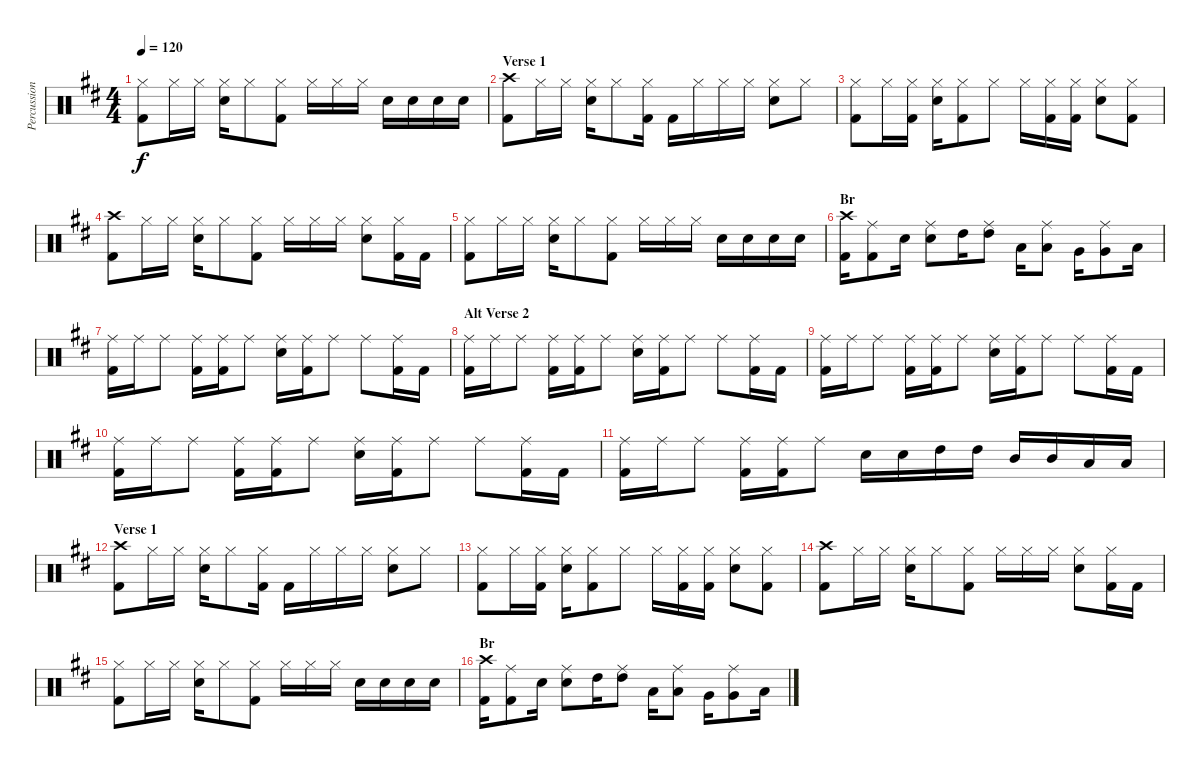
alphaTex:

\track ("Percussion" "Percussion") {instrument percussion}
\staff {score}
\articulation defaults
\ts (4 4)
\tempo 120
\clef neutral
\ks d
("Hi-Hat (closed)" "Kick (hit) 2").8{dy f} "Hi-Hat (closed)".16 "Hi-Hat (closed)".16 ("Hi-Hat (closed)" "Snare (hit) 2").16 "Hi-Hat (closed)".8 ("Hi-Hat (closed)" "Kick (hit) 2").8 "Hi-Hat (closed)".16 "Hi-Hat (closed)".16 "Hi-Hat (closed)".16 "Snare (hit) 2".16 "Snare (hit) 2".16 "Snare (hit) 2".16 "Snare (hit) 2".16 |
\section ("" "Verse 1")
("Crash high (hit)" "Kick (hit) 2").8 "Hi-Hat (closed)".16 "Hi-Hat (closed)".16 ("Hi-Hat (closed)" "Snare (hit) 2").16 "Hi-Hat (closed)".8 ("Hi-Hat (closed)" "Kick (hit) 2").16 "Kick (hit) 2".16 "Hi-Hat (closed)".16 "Hi-Hat (closed)".16 "Hi-Hat (closed)".16 ("Hi-Hat (closed)" "Snare (hit) 2").8 "Hi-Hat (closed)".8 |
("Hi-Hat (closed)" "Kick (hit) 2").8 "Hi-Hat (closed)".16 ("Hi-Hat (closed)" "Kick (hit) 2").16 ("Hi-Hat (closed)" "Snare (hit) 2").16 ("Hi-Hat (closed)" "Kick (hit) 2").8 "Hi-Hat (closed)".8 "Hi-Hat (closed)".16 ("Hi-Hat (closed)" "Kick (hit) 2").16 ("Hi-Hat (closed)" "Kick (hit) 2").16 ("Hi-Hat (closed)" "Snare (hit) 2").8 ("Hi-Hat (closed)" "Kick (hit) 2").8 |
("Crash high (hit)" "Kick (hit) 2").8 "Hi-Hat (closed)".16 "Hi-Hat (closed)".16 ("Hi-Hat (closed)" "Snare (hit) 2").16 "Hi-Hat (closed)".8 ("Hi-Hat (closed)" "Kick (hit) 2").8 "Hi-Hat (closed)".16 "Hi-Hat (closed)".16 "Hi-Hat (closed)".16 ("Hi-Hat (closed)" "Snare (hit) 2").8 ("Hi-Hat (closed)" "Kick (hit) 2").16 "Kick (hit) 2".16 |
("Hi-Hat (closed)" "Kick (hit) 2").8 "Hi-Hat (closed)".16 "Hi-Hat (closed)".16 ("Hi-Hat (closed)" "Snare (hit) 2").16 "Hi-Hat (closed)".8 ("Hi-Hat (closed)" "Kick (hit) 2").8 "Hi-Hat (closed)".16 "Hi-Hat (closed)".16 "Hi-Hat (closed)".16 "Snare (hit) 2".16 "Snare (hit) 2".16 "Snare (hit) 2".16 "Snare (hit) 2".16 |
\section ("" "Br")
("Crash high (hit)" "Kick (hit) 2").16 ("Ride (middle)" "Kick (hit) 2").8 "Snare (hit) 2".16 ("Ride (middle)" "Snare (hit) 2").8 "High Tom (hit)".16 ("Ride (middle)" "High Tom (hit)").8 "Low Tom (hit)".16 ("Ride (middle)" "Low Tom (hit)").8 "Very Low Tom (hit)".16 ("Ride (middle)" "Very Low Tom (hit)").8 "Low Floor Tom (hit)".16 |
("Ride (middle)" "Kick (hit) 2").16 "Ride (middle)".16 "Ride (middle)".8 ("Ride (middle)" "Kick (hit) 2").16 ("Ride (middle)" "Kick (hit) 2").16 "Ride (middle)".8 ("Ride (middle)" "Snare (hit) 2").16 ("Ride (middle)" "Kick (hit) 2").16 "Ride (middle)".8 "Ride (middle)".8 ("Ride (middle)" "Kick (hit) 2").16 "Kick (hit) 2".16 |
\section ("" "Alt Verse 2")
("Ride (middle)" "Kick (hit) 2").16 "Ride (middle)".16 "Ride (middle)".8 ("Ride (middle)" "Kick (hit) 2").16 ("Ride (middle)" "Kick (hit) 2").16 "Ride (middle)".8 ("Ride (middle)" "Snare (hit) 2").16 ("Ride (middle)" "Kick (hit) 2").16 "Ride (middle)".8 "Ride (middle)".8 ("Ride (middle)" "Kick (hit) 2").16 "Kick (hit) 2".16 |
("Ride (middle)" "Kick (hit) 2").16 "Ride (middle)".16 "Ride (middle)".8 ("Ride (middle)" "Kick (hit) 2").16 ("Ride (middle)" "Kick (hit) 2").16 "Ride (middle)".8 ("Ride (middle)" "Snare (hit) 2").16 ("Ride (middle)" "Kick (hit) 2").16 "Ride (middle)".8 "Ride (middle)".8 ("Ride (middle)" "Kick (hit) 2").16 "Kick (hit) 2".16 |
("Ride (middle)" "Kick (hit) 2").16 "Ride (middle)".16 "Ride (middle)".8 ("Ride (middle)" "Kick (hit) 2").16 ("Ride (middle)" "Kick (hit) 2").16 "Ride (middle)".8 ("Ride (middle)" "Snare (hit) 2").16 ("Ride (middle)" "Kick (hit) 2").16 "Ride (middle)".8 "Ride (middle)".8 ("Ride (middle)" "Kick (hit) 2").16 "Kick (hit) 2".16 |
("Ride (middle)" "Kick (hit) 2").16 "Ride (middle)".16 "Ride (middle)".8 ("Ride (middle)" "Kick (hit) 2").16 ("Ride (middle)" "Kick (hit) 2").16 "Ride (middle)".8 "Snare (hit) 2".16 "Snare (hit) 2".16 "High Tom (hit)".16 "High Tom (hit)".16 "Mid Tom (hit)".16 "Mid Tom (hit)".16 "Low Tom (hit)".16 "Low Tom (hit)".16 |
\section ("" "Verse 1")
("Crash high (hit)" "Kick (hit) 2").8 "Hi-Hat (closed)".16 "Hi-Hat (closed)".16 ("Hi-Hat (closed)" "Snare (hit) 2").16 "Hi-Hat (closed)".8 ("Hi-Hat (closed)" "Kick (hit) 2").16 "Kick (hit) 2".16 "Hi-Hat (closed)".16 "Hi-Hat (closed)".16 "Hi-Hat (closed)".16 ("Hi-Hat (closed)" "Snare (hit) 2").8 "Hi-Hat (closed)".8 |
("Hi-Hat (closed)" "Kick (hit) 2").8 "Hi-Hat (closed)".16 ("Hi-Hat (closed)" "Kick (hit) 2").16 ("Hi-Hat (closed)" "Snare (hit) 2").16 ("Hi-Hat (closed)" "Kick (hit) 2").8 "Hi-Hat (closed)".8 "Hi-Hat (closed)".16 ("Hi-Hat (closed)" "Kick (hit) 2").16 ("Hi-Hat (closed)" "Kick (hit) 2").16 ("Hi-Hat (closed)" "Snare (hit) 2").8 ("Hi-Hat (closed)" "Kick (hit) 2").8 |
("Crash high (hit)" "Kick (hit) 2").8 "Hi-Hat (closed)".16 "Hi-Hat (closed)".16 ("Hi-Hat (closed)" "Snare (hit) 2").16 "Hi-Hat (closed)".8 ("Hi-Hat (closed)" "Kick (hit) 2").8 "Hi-Hat (closed)".16 "Hi-Hat (closed)".16 "Hi-Hat (closed)".16 ("Hi-Hat (closed)" "Snare (hit) 2").8 ("Hi-Hat (closed)" "Kick (hit) 2").16 "Kick (hit) 2".16 |
("Hi-Hat (closed)" "Kick (hit) 2").8 "Hi-Hat (closed)".16 "Hi-Hat (closed)".16 ("Hi-Hat (closed)" "Snare (hit) 2").16 "Hi-Hat (closed)".8 ("Hi-Hat (closed)" "Kick (hit) 2").8 "Hi-Hat (closed)".16 "Hi-Hat (closed)".16 "Hi-Hat (closed)".16 "Snare (hit) 2".16 "Snare (hit) 2".16 "Snare (hit) 2".16 "Snare (hit) 2".16 |
\section ("" "Br")
("Crash high (hit)" "Kick (hit) 2").16 ("Ride (middle)" "Kick (hit) 2").8 "Snare (hit) 2".16 ("Ride (middle)" "Snare (hit) 2").8 "High Tom (hit)".16 ("Ride (middle)" "High Tom (hit)").8 "Low Tom (hit)".16 ("Ride (middle)" "Low Tom (hit)").8 "Very Low Tom (hit)".16 ("Ride (middle)" "Very Low Tom (hit)").8 "Low Floor Tom (hit)".16
